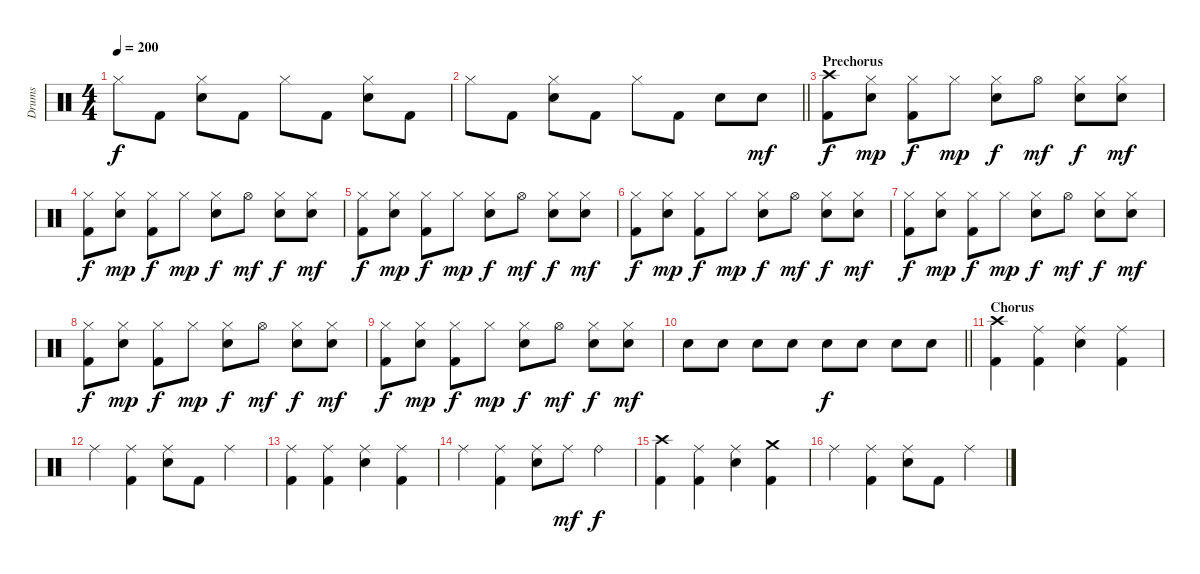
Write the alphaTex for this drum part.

\track ("Drums" "Drums") {instrument percussion}
\staff {score}
\articulation defaults
\ts (4 4)
\tempo 200
\clef neutral
\ks c "Hi-Hat (closed)".8{dy f} "Kick (hit) 2".8
("Hi-Hat (closed)" "Electric Snare (hit)").8 "Kick (hit) 2".8 "Hi-Hat (closed)".8 "Kick (hit) 2".8 ("Hi-Hat (closed)" "Electric Snare (hit)").8 "Kick (hit) 2".8 |
\barLineRight lightlight "Hi-Hat (closed)".8 "Kick (hit) 2".8
("Hi-Hat (closed)" "Electric Snare (hit)").8 "Kick (hit) 2".8 "Hi-Hat (closed)".8 "Kick (hit) 2".8 "Electric Snare (hit)".8 "Electric Snare (hit)".8{dy mf} |
\section ("" "Prechorus")
("Kick (hit) 2" "Crash high (hit)").8{dy f} ("Hi-Hat (closed)" "Electric Snare (hit)").8{dy mp} ("Kick (hit) 2" "Hi-Hat (closed)").8{dy f} "Hi-Hat (closed)".8{dy mp} ("Hi-Hat (closed)" "Electric Snare (hit)").8{dy f} "Hi-Hat (open)".8{dy mf} ("Hi-Hat (closed)" "Electric Snare (hit)").8{dy f} ("Hi-Hat (closed)" "Electric Snare (hit)").8{dy mf} |
("Kick (hit) 2" "Hi-Hat (closed)").8{dy f} ("Hi-Hat (closed)" "Electric Snare (hit)").8{dy mp} ("Kick (hit) 2" "Hi-Hat (closed)").8{dy f} "Hi-Hat (closed)".8{dy mp} ("Hi-Hat (closed)" "Electric Snare (hit)").8{dy f} "Hi-Hat (open)".8{dy mf} ("Hi-Hat (closed)" "Electric Snare (hit)").8{dy f} ("Hi-Hat (closed)" "Electric Snare (hit)").8{dy mf} |
("Kick (hit) 2" "Hi-Hat (closed)").8{dy f} ("Hi-Hat (closed)" "Electric Snare (hit)").8{dy mp} ("Kick (hit) 2" "Hi-Hat (closed)").8{dy f} "Hi-Hat (closed)".8{dy mp} ("Hi-Hat (closed)" "Electric Snare (hit)").8{dy f} "Hi-Hat (open)".8{dy mf} ("Hi-Hat (closed)" "Electric Snare (hit)").8{dy f} ("Hi-Hat (closed)" "Electric Snare (hit)").8{dy mf} |
("Kick (hit) 2" "Hi-Hat (closed)").8{dy f} ("Hi-Hat (closed)" "Electric Snare (hit)").8{dy mp} ("Kick (hit) 2" "Hi-Hat (closed)").8{dy f} "Hi-Hat (closed)".8{dy mp} ("Hi-Hat (closed)" "Electric Snare (hit)").8{dy f} "Hi-Hat (open)".8{dy mf} ("Hi-Hat (closed)" "Electric Snare (hit)").8{dy f} ("Hi-Hat (closed)" "Electric Snare (hit)").8{dy mf} |
("Kick (hit) 2" "Hi-Hat (closed)").8{dy f} ("Hi-Hat (closed)" "Electric Snare (hit)").8{dy mp} ("Kick (hit) 2" "Hi-Hat (closed)").8{dy f} "Hi-Hat (closed)".8{dy mp} ("Hi-Hat (closed)" "Electric Snare (hit)").8{dy f} "Hi-Hat (open)".8{dy mf} ("Hi-Hat (closed)" "Electric Snare (hit)").8{dy f} ("Hi-Hat (closed)" "Electric Snare (hit)").8{dy mf} |
("Kick (hit) 2" "Hi-Hat (closed)").8{dy f} ("Hi-Hat (closed)" "Electric Snare (hit)").8{dy mp} ("Kick (hit) 2" "Hi-Hat (closed)").8{dy f} "Hi-Hat (closed)".8{dy mp} ("Hi-Hat (closed)" "Electric Snare (hit)").8{dy f} "Hi-Hat (open)".8{dy mf} ("Hi-Hat (closed)" "Electric Snare (hit)").8{dy f} ("Hi-Hat (closed)" "Electric Snare (hit)").8{dy mf} |
("Kick (hit) 2" "Hi-Hat (closed)").8{dy f} ("Hi-Hat (closed)" "Electric Snare (hit)").8{dy mp} ("Kick (hit) 2" "Hi-Hat (closed)").8{dy f} "Hi-Hat (closed)".8{dy mp} ("Hi-Hat (closed)" "Electric Snare (hit)").8{dy f} "Hi-Hat (open)".8{dy mf} ("Hi-Hat (closed)" "Electric Snare (hit)").8{dy f} ("Hi-Hat (closed)" "Electric Snare (hit)").8{dy mf} |
\barLineRight lightlight "Electric Snare (hit)".8 "Electric Snare (hit)".8 "Electric Snare (hit)".8 "Electric Snare (hit)".8 "Electric Snare (hit)".8{dy f} "Electric Snare (hit)".8 "Electric Snare (hit)".8 "Electric Snare (hit)".8
|
\section ("" "Chorus")
("Kick (hit) 2" "Crash high (hit)").4 ("Kick (hit) 2" "Ride (middle)").4 ("Ride (middle)" "Electric Snare (hit)").4 ("Kick (hit) 2" "Ride (middle)").4 |
"Ride (middle)".4 ("Kick (hit) 2" "Ride (middle)").4 ("Ride (middle)" "Electric Snare (hit)").8 "Kick (hit) 2".8 "Ride (middle)".4 |
("Kick (hit) 2" "Ride (middle)").4 ("Kick (hit) 2" "Ride (middle)").4 ("Ride (middle)" "Electric Snare (hit)").4 ("Kick (hit) 2" "Ride (middle)").4 |
"Ride (middle)".4 ("Kick (hit) 2" "Ride (middle)").4 ("Ride (middle)" "Electric Snare (hit)").8 "Ride (middle)".8{dy mf} "Ride (bell)".4{dy f} |
("Kick (hit) 2" "Crash high (hit)").4 ("Kick (hit) 2" "Ride (middle)").4 ("Ride (middle)" "Electric Snare (hit)").4 ("Kick (hit) 2" "Crash medium (hit)").4 |
"Ride (middle)".4 ("Kick (hit) 2" "Ride (middle)").4 ("Ride (middle)" "Electric Snare (hit)").8 "Kick (hit) 2".8 "Ride (middle)".4
